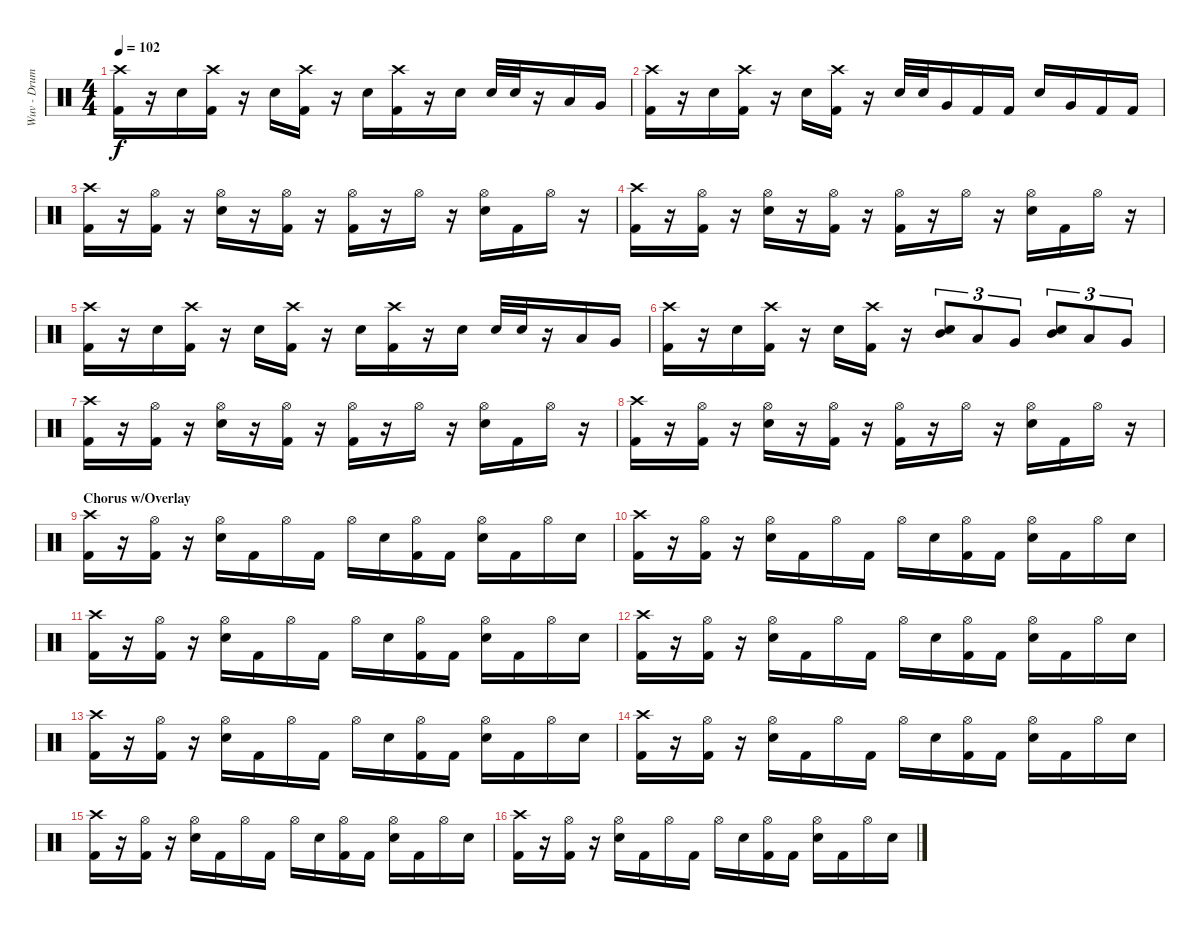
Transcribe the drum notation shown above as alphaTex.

\track ("Wuv - Drums" "Wuv - Drum") {instrument percussion}
\staff {score}
\articulation defaults
\ts (4 4)
\tempo 102
\clef neutral
\ks c
("Crash high (hit)" "Kick (hit) 2").16{dy f} r.16 "Snare (hit) 2".16 ("Crash high (hit)" "Kick (hit) 2").16 r.16 "Snare (hit) 2".16 ("Crash high (hit)" "Kick (hit) 2").16 r.16 "Snare (hit) 2".16 ("Crash high (hit)" "Kick (hit) 2").16 r.16 "Snare (hit) 2".16 "Snare (hit) 2".32 "Snare (hit) 2".32 r.16 "Low Tom (hit)".16 "Very Low Tom (hit)".16 |
("Crash high (hit)" "Kick (hit) 2").16 r.16 "Snare (hit) 2".16 ("Crash high (hit)" "Kick (hit) 2").16 r.16 "Snare (hit) 2".16 ("Crash high (hit)" "Kick (hit) 2").16 r.16 "Snare (hit) 2".32 "Snare (hit) 2".32 "Very Low Tom (hit)".16 "Kick (hit) 2".16 "Kick (hit) 2".16 "Snare (hit) 2".16 "Very Low Tom (hit)".16 "Kick (hit) 2".16 "Kick (hit) 2".16 |
("Crash high (hit)" "Kick (hit) 2").16 r.16 ("Hi-Hat (open)" "Kick (hit) 2").16 r.16 ("Hi-Hat (open)" "Snare (hit) 2").16 r.16 ("Hi-Hat (open)" "Kick (hit) 2").16 r.16 ("Hi-Hat (open)" "Kick (hit) 2").16 r.16 "Hi-Hat (open)".16 r.16 ("Hi-Hat (open)" "Snare (hit) 2").16 "Kick (hit) 2".16 "Hi-Hat (open)".16 r.16 |
("Crash high (hit)" "Kick (hit) 2").16 r.16 ("Hi-Hat (open)" "Kick (hit) 2").16 r.16 ("Hi-Hat (open)" "Snare (hit) 2").16 r.16 ("Hi-Hat (open)" "Kick (hit) 2").16 r.16 ("Hi-Hat (open)" "Kick (hit) 2").16 r.16 "Hi-Hat (open)".16 r.16 ("Hi-Hat (open)" "Snare (hit) 2").16 "Kick (hit) 2".16 "Hi-Hat (open)".16 r.16 |
("Crash high (hit)" "Kick (hit) 2").16 r.16 "Snare (hit) 2".16 ("Crash high (hit)" "Kick (hit) 2").16 r.16 "Snare (hit) 2".16 ("Crash high (hit)" "Kick (hit) 2").16 r.16 "Snare (hit) 2".16 ("Crash high (hit)" "Kick (hit) 2").16 r.16 "Snare (hit) 2".16 "Snare (hit) 2".32 "Snare (hit) 2".32 r.16 "Low Tom (hit)".16 "Very Low Tom (hit)".16 |
("Crash high (hit)" "Kick (hit) 2").16 r.16 "Snare (hit) 2".16 ("Crash high (hit)" "Kick (hit) 2").16 r.16 "Snare (hit) 2".16 ("Crash high (hit)" "Kick (hit) 2").16 r.16 ("Mid Tom (hit)" "Snare (hit) 2").8{tu (3 2)} "Low Tom (hit)".8{tu (3 2)} "Very Low Tom (hit)".8{tu (3 2)} ("Mid Tom (hit)" "Snare (hit) 2").8{tu (3 2)} "Low Tom (hit)".8{tu (3 2)} "Very Low Tom (hit)".8{tu (3 2)} |
("Crash high (hit)" "Kick (hit) 2").16 r.16 ("Hi-Hat (open)" "Kick (hit) 2").16 r.16 ("Hi-Hat (open)" "Snare (hit) 2").16 r.16 ("Hi-Hat (open)" "Kick (hit) 2").16 r.16 ("Hi-Hat (open)" "Kick (hit) 2").16 r.16 "Hi-Hat (open)".16 r.16 ("Hi-Hat (open)" "Snare (hit) 2").16 "Kick (hit) 2".16 "Hi-Hat (open)".16 r.16 |
("Crash high (hit)" "Kick (hit) 2").16 r.16 ("Hi-Hat (open)" "Kick (hit) 2").16 r.16 ("Hi-Hat (open)" "Snare (hit) 2").16 r.16 ("Hi-Hat (open)" "Kick (hit) 2").16 r.16 ("Hi-Hat (open)" "Kick (hit) 2").16 r.16 "Hi-Hat (open)".16 r.16 ("Hi-Hat (open)" "Snare (hit) 2").16 "Kick (hit) 2".16 "Hi-Hat (open)".16 r.16 |
\section ("" "Chorus w/Overlay")
("Crash high (hit)" "Kick (hit) 2").16 r.16 ("Hi-Hat (open)" "Kick (hit) 2").16 r.16 ("Hi-Hat (open)" "Snare (hit) 2").16 "Kick (hit) 2".16 "Hi-Hat (open)".16 "Kick (hit) 2".16 "Hi-Hat (open)".16 "Snare (hit) 2".16 ("Hi-Hat (open)" "Kick (hit) 2").16 "Kick (hit) 2".16 ("Hi-Hat (open)" "Snare (hit) 2").16 "Kick (hit) 2".16 "Hi-Hat (open)".16 "Snare (hit) 2".16 |
("Crash high (hit)" "Kick (hit) 2").16 r.16 ("Hi-Hat (open)" "Kick (hit) 2").16 r.16 ("Hi-Hat (open)" "Snare (hit) 2").16 "Kick (hit) 2".16 "Hi-Hat (open)".16 "Kick (hit) 2".16 "Hi-Hat (open)".16 "Snare (hit) 2".16 ("Hi-Hat (open)" "Kick (hit) 2").16 "Kick (hit) 2".16 ("Hi-Hat (open)" "Snare (hit) 2").16 "Kick (hit) 2".16 "Hi-Hat (open)".16 "Snare (hit) 2".16 |
("Crash high (hit)" "Kick (hit) 2").16 r.16 ("Hi-Hat (open)" "Kick (hit) 2").16 r.16 ("Hi-Hat (open)" "Snare (hit) 2").16 "Kick (hit) 2".16 "Hi-Hat (open)".16 "Kick (hit) 2".16 "Hi-Hat (open)".16 "Snare (hit) 2".16 ("Hi-Hat (open)" "Kick (hit) 2").16 "Kick (hit) 2".16 ("Hi-Hat (open)" "Snare (hit) 2").16 "Kick (hit) 2".16 "Hi-Hat (open)".16 "Snare (hit) 2".16 |
("Crash high (hit)" "Kick (hit) 2").16 r.16 ("Hi-Hat (open)" "Kick (hit) 2").16 r.16 ("Hi-Hat (open)" "Snare (hit) 2").16 "Kick (hit) 2".16 "Hi-Hat (open)".16 "Kick (hit) 2".16 "Hi-Hat (open)".16 "Snare (hit) 2".16 ("Hi-Hat (open)" "Kick (hit) 2").16 "Kick (hit) 2".16 ("Hi-Hat (open)" "Snare (hit) 2").16 "Kick (hit) 2".16 "Hi-Hat (open)".16 "Snare (hit) 2".16 |
("Crash high (hit)" "Kick (hit) 2").16 r.16 ("Hi-Hat (open)" "Kick (hit) 2").16 r.16 ("Hi-Hat (open)" "Snare (hit) 2").16 "Kick (hit) 2".16 "Hi-Hat (open)".16 "Kick (hit) 2".16 "Hi-Hat (open)".16 "Snare (hit) 2".16 ("Hi-Hat (open)" "Kick (hit) 2").16 "Kick (hit) 2".16 ("Hi-Hat (open)" "Snare (hit) 2").16 "Kick (hit) 2".16 "Hi-Hat (open)".16 "Snare (hit) 2".16 |
("Crash high (hit)" "Kick (hit) 2").16 r.16 ("Hi-Hat (open)" "Kick (hit) 2").16 r.16 ("Hi-Hat (open)" "Snare (hit) 2").16 "Kick (hit) 2".16 "Hi-Hat (open)".16 "Kick (hit) 2".16 "Hi-Hat (open)".16 "Snare (hit) 2".16 ("Hi-Hat (open)" "Kick (hit) 2").16 "Kick (hit) 2".16 ("Hi-Hat (open)" "Snare (hit) 2").16 "Kick (hit) 2".16 "Hi-Hat (open)".16 "Snare (hit) 2".16 |
("Crash high (hit)" "Kick (hit) 2").16 r.16 ("Hi-Hat (open)" "Kick (hit) 2").16 r.16 ("Hi-Hat (open)" "Snare (hit) 2").16 "Kick (hit) 2".16 "Hi-Hat (open)".16 "Kick (hit) 2".16 "Hi-Hat (open)".16 "Snare (hit) 2".16 ("Hi-Hat (open)" "Kick (hit) 2").16 "Kick (hit) 2".16 ("Hi-Hat (open)" "Snare (hit) 2").16 "Kick (hit) 2".16 "Hi-Hat (open)".16 "Snare (hit) 2".16 |
("Crash high (hit)" "Kick (hit) 2").16 r.16 ("Hi-Hat (open)" "Kick (hit) 2").16 r.16 ("Hi-Hat (open)" "Snare (hit) 2").16 "Kick (hit) 2".16 "Hi-Hat (open)".16 "Kick (hit) 2".16 "Hi-Hat (open)".16 "Snare (hit) 2".16 ("Hi-Hat (open)" "Kick (hit) 2").16 "Kick (hit) 2".16 ("Hi-Hat (open)" "Snare (hit) 2").16 "Kick (hit) 2".16 "Hi-Hat (open)".16 "Snare (hit) 2".16
